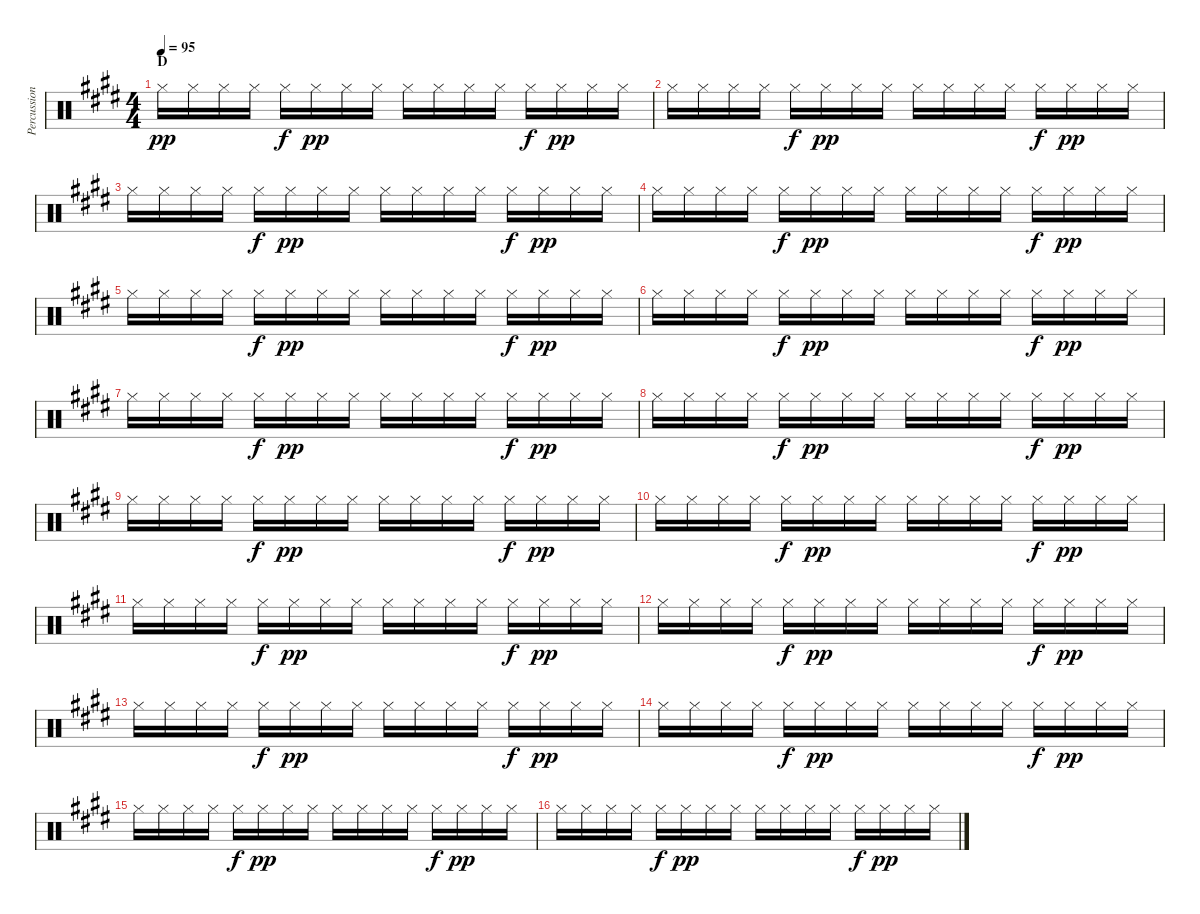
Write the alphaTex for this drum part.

\track ("Percussion" "Percussion") {instrument percussion}
\staff {score}
\articulation defaults
\ts (4 4)
\section ("" "D")
\tempo 95
\clef neutral
\ks e "Hi-Hat (closed)".16{dy pp} "Hi-Hat (closed)".16 "Hi-Hat (closed)".16 "Hi-Hat (closed)".16 "Hi-Hat (closed)".16{dy f} "Hi-Hat (closed)".16{dy pp} "Hi-Hat (closed)".16 "Hi-Hat (closed)".16 "Hi-Hat (closed)".16 "Hi-Hat (closed)".16 "Hi-Hat (closed)".16 "Hi-Hat (closed)".16 "Hi-Hat (closed)".16{dy f} "Hi-Hat (closed)".16{dy pp} "Hi-Hat (closed)".16 "Hi-Hat (closed)".16
|
"Hi-Hat (closed)".16 "Hi-Hat (closed)".16 "Hi-Hat (closed)".16 "Hi-Hat (closed)".16 "Hi-Hat (closed)".16{dy f} "Hi-Hat (closed)".16{dy pp} "Hi-Hat (closed)".16 "Hi-Hat (closed)".16 "Hi-Hat (closed)".16 "Hi-Hat (closed)".16 "Hi-Hat (closed)".16 "Hi-Hat (closed)".16 "Hi-Hat (closed)".16{dy f} "Hi-Hat (closed)".16{dy pp} "Hi-Hat (closed)".16 "Hi-Hat (closed)".16 |
"Hi-Hat (closed)".16 "Hi-Hat (closed)".16 "Hi-Hat (closed)".16 "Hi-Hat (closed)".16 "Hi-Hat (closed)".16{dy f} "Hi-Hat (closed)".16{dy pp} "Hi-Hat (closed)".16 "Hi-Hat (closed)".16 "Hi-Hat (closed)".16 "Hi-Hat (closed)".16 "Hi-Hat (closed)".16 "Hi-Hat (closed)".16 "Hi-Hat (closed)".16{dy f} "Hi-Hat (closed)".16{dy pp} "Hi-Hat (closed)".16 "Hi-Hat (closed)".16 |
"Hi-Hat (closed)".16 "Hi-Hat (closed)".16 "Hi-Hat (closed)".16 "Hi-Hat (closed)".16 "Hi-Hat (closed)".16{dy f} "Hi-Hat (closed)".16{dy pp} "Hi-Hat (closed)".16 "Hi-Hat (closed)".16 "Hi-Hat (closed)".16 "Hi-Hat (closed)".16 "Hi-Hat (closed)".16 "Hi-Hat (closed)".16 "Hi-Hat (closed)".16{dy f} "Hi-Hat (closed)".16{dy pp} "Hi-Hat (closed)".16 "Hi-Hat (closed)".16 |
"Hi-Hat (closed)".16 "Hi-Hat (closed)".16 "Hi-Hat (closed)".16 "Hi-Hat (closed)".16 "Hi-Hat (closed)".16{dy f} "Hi-Hat (closed)".16{dy pp} "Hi-Hat (closed)".16 "Hi-Hat (closed)".16 "Hi-Hat (closed)".16 "Hi-Hat (closed)".16 "Hi-Hat (closed)".16 "Hi-Hat (closed)".16 "Hi-Hat (closed)".16{dy f} "Hi-Hat (closed)".16{dy pp} "Hi-Hat (closed)".16 "Hi-Hat (closed)".16 |
"Hi-Hat (closed)".16 "Hi-Hat (closed)".16 "Hi-Hat (closed)".16 "Hi-Hat (closed)".16 "Hi-Hat (closed)".16{dy f} "Hi-Hat (closed)".16{dy pp} "Hi-Hat (closed)".16 "Hi-Hat (closed)".16 "Hi-Hat (closed)".16 "Hi-Hat (closed)".16 "Hi-Hat (closed)".16 "Hi-Hat (closed)".16 "Hi-Hat (closed)".16{dy f} "Hi-Hat (closed)".16{dy pp} "Hi-Hat (closed)".16 "Hi-Hat (closed)".16 |
"Hi-Hat (closed)".16 "Hi-Hat (closed)".16 "Hi-Hat (closed)".16 "Hi-Hat (closed)".16 "Hi-Hat (closed)".16{dy f} "Hi-Hat (closed)".16{dy pp} "Hi-Hat (closed)".16 "Hi-Hat (closed)".16 "Hi-Hat (closed)".16 "Hi-Hat (closed)".16 "Hi-Hat (closed)".16 "Hi-Hat (closed)".16 "Hi-Hat (closed)".16{dy f} "Hi-Hat (closed)".16{dy pp} "Hi-Hat (closed)".16 "Hi-Hat (closed)".16 |
"Hi-Hat (closed)".16 "Hi-Hat (closed)".16 "Hi-Hat (closed)".16 "Hi-Hat (closed)".16 "Hi-Hat (closed)".16{dy f} "Hi-Hat (closed)".16{dy pp} "Hi-Hat (closed)".16 "Hi-Hat (closed)".16 "Hi-Hat (closed)".16 "Hi-Hat (closed)".16 "Hi-Hat (closed)".16 "Hi-Hat (closed)".16 "Hi-Hat (closed)".16{dy f} "Hi-Hat (closed)".16{dy pp} "Hi-Hat (closed)".16 "Hi-Hat (closed)".16 |
"Hi-Hat (closed)".16 "Hi-Hat (closed)".16 "Hi-Hat (closed)".16 "Hi-Hat (closed)".16 "Hi-Hat (closed)".16{dy f} "Hi-Hat (closed)".16{dy pp} "Hi-Hat (closed)".16 "Hi-Hat (closed)".16 "Hi-Hat (closed)".16 "Hi-Hat (closed)".16 "Hi-Hat (closed)".16 "Hi-Hat (closed)".16 "Hi-Hat (closed)".16{dy f} "Hi-Hat (closed)".16{dy pp} "Hi-Hat (closed)".16 "Hi-Hat (closed)".16 |
"Hi-Hat (closed)".16 "Hi-Hat (closed)".16 "Hi-Hat (closed)".16 "Hi-Hat (closed)".16 "Hi-Hat (closed)".16{dy f} "Hi-Hat (closed)".16{dy pp} "Hi-Hat (closed)".16 "Hi-Hat (closed)".16 "Hi-Hat (closed)".16 "Hi-Hat (closed)".16 "Hi-Hat (closed)".16 "Hi-Hat (closed)".16 "Hi-Hat (closed)".16{dy f} "Hi-Hat (closed)".16{dy pp} "Hi-Hat (closed)".16 "Hi-Hat (closed)".16 |
"Hi-Hat (closed)".16 "Hi-Hat (closed)".16 "Hi-Hat (closed)".16 "Hi-Hat (closed)".16 "Hi-Hat (closed)".16{dy f} "Hi-Hat (closed)".16{dy pp} "Hi-Hat (closed)".16 "Hi-Hat (closed)".16 "Hi-Hat (closed)".16 "Hi-Hat (closed)".16 "Hi-Hat (closed)".16 "Hi-Hat (closed)".16 "Hi-Hat (closed)".16{dy f} "Hi-Hat (closed)".16{dy pp} "Hi-Hat (closed)".16 "Hi-Hat (closed)".16 |
"Hi-Hat (closed)".16 "Hi-Hat (closed)".16 "Hi-Hat (closed)".16 "Hi-Hat (closed)".16 "Hi-Hat (closed)".16{dy f} "Hi-Hat (closed)".16{dy pp} "Hi-Hat (closed)".16 "Hi-Hat (closed)".16 "Hi-Hat (closed)".16 "Hi-Hat (closed)".16 "Hi-Hat (closed)".16 "Hi-Hat (closed)".16 "Hi-Hat (closed)".16{dy f} "Hi-Hat (closed)".16{dy pp} "Hi-Hat (closed)".16 "Hi-Hat (closed)".16 |
"Hi-Hat (closed)".16 "Hi-Hat (closed)".16 "Hi-Hat (closed)".16 "Hi-Hat (closed)".16 "Hi-Hat (closed)".16{dy f} "Hi-Hat (closed)".16{dy pp} "Hi-Hat (closed)".16 "Hi-Hat (closed)".16 "Hi-Hat (closed)".16 "Hi-Hat (closed)".16 "Hi-Hat (closed)".16 "Hi-Hat (closed)".16 "Hi-Hat (closed)".16{dy f} "Hi-Hat (closed)".16{dy pp} "Hi-Hat (closed)".16 "Hi-Hat (closed)".16 |
"Hi-Hat (closed)".16 "Hi-Hat (closed)".16 "Hi-Hat (closed)".16 "Hi-Hat (closed)".16 "Hi-Hat (closed)".16{dy f} "Hi-Hat (closed)".16{dy pp} "Hi-Hat (closed)".16 "Hi-Hat (closed)".16 "Hi-Hat (closed)".16 "Hi-Hat (closed)".16 "Hi-Hat (closed)".16 "Hi-Hat (closed)".16 "Hi-Hat (closed)".16{dy f} "Hi-Hat (closed)".16{dy pp} "Hi-Hat (closed)".16 "Hi-Hat (closed)".16 |
"Hi-Hat (closed)".16 "Hi-Hat (closed)".16 "Hi-Hat (closed)".16 "Hi-Hat (closed)".16 "Hi-Hat (closed)".16{dy f} "Hi-Hat (closed)".16{dy pp} "Hi-Hat (closed)".16 "Hi-Hat (closed)".16 "Hi-Hat (closed)".16 "Hi-Hat (closed)".16 "Hi-Hat (closed)".16 "Hi-Hat (closed)".16 "Hi-Hat (closed)".16{dy f} "Hi-Hat (closed)".16{dy pp} "Hi-Hat (closed)".16 "Hi-Hat (closed)".16 |
"Hi-Hat (closed)".16 "Hi-Hat (closed)".16 "Hi-Hat (closed)".16 "Hi-Hat (closed)".16 "Hi-Hat (closed)".16{dy f} "Hi-Hat (closed)".16{dy pp} "Hi-Hat (closed)".16 "Hi-Hat (closed)".16 "Hi-Hat (closed)".16 "Hi-Hat (closed)".16 "Hi-Hat (closed)".16 "Hi-Hat (closed)".16 "Hi-Hat (closed)".16{dy f} "Hi-Hat (closed)".16{dy pp} "Hi-Hat (closed)".16 "Hi-Hat (closed)".16
